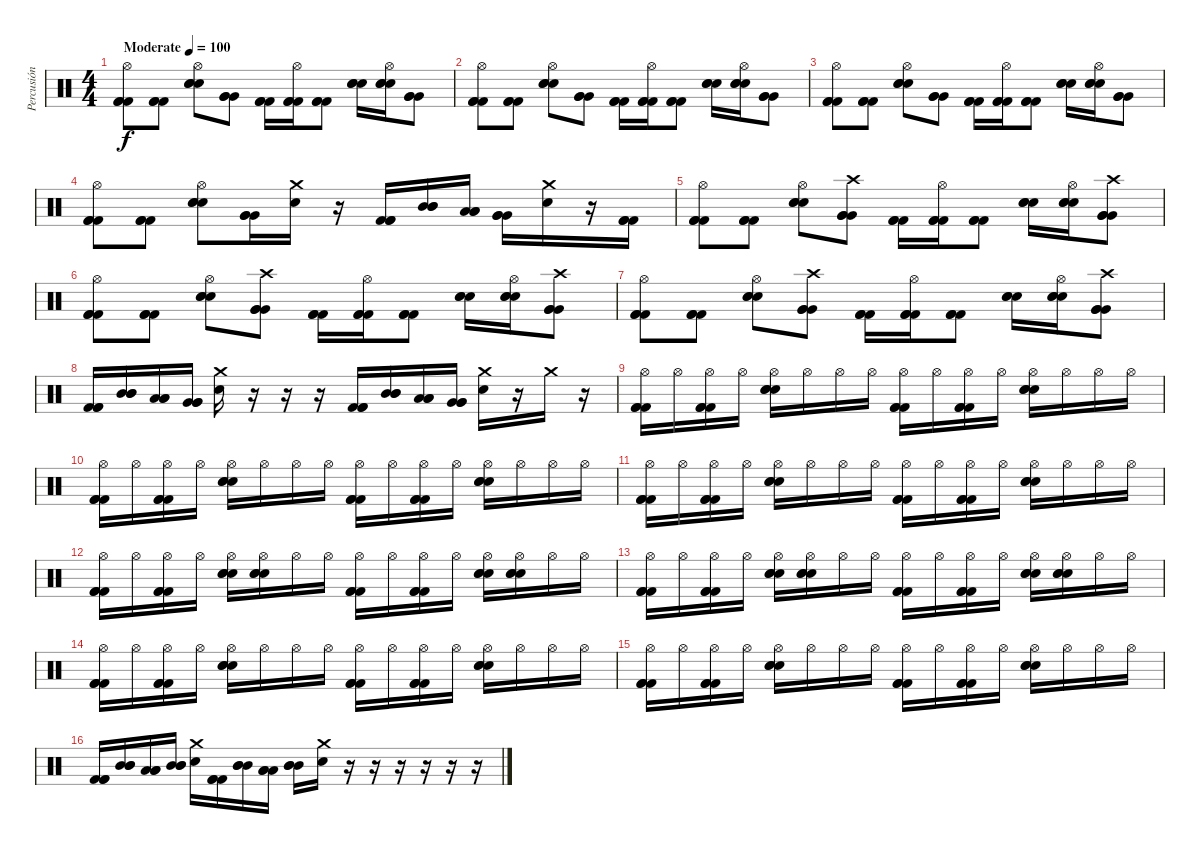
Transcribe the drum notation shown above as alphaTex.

\track ("Percusión" "Percusión") {instrument percussion}
\staff {score}
\articulation defaults
\ts (4 4)
\tempo (100 "Moderate")
\clef neutral
\ks c
("Hi-Hat (open)" "Kick (hit) 2" "Kick (hit) 2" "Kick (hit) 2").8{dy f} ("Kick (hit) 2" "Kick (hit) 2" "Kick (hit) 2").8 ("Hi-Hat (open)" "Snare (hit) 2" "Snare (hit) 2" "Snare (hit) 2").8 ("Very Low Tom (hit)" "Very Low Tom (hit)" "Very Low Tom (hit)").8 ("Kick (hit) 2" "Kick (hit) 2" "Kick (hit) 2").16 ("Hi-Hat (open)" "Kick (hit) 2" "Kick (hit) 2" "Kick (hit) 2").16 ("Kick (hit) 2" "Kick (hit) 2" "Kick (hit) 2").8 ("Snare (hit) 2" "Snare (hit) 2" "Snare (hit) 2").16 ("Hi-Hat (open)" "Snare (hit) 2" "Snare (hit) 2" "Snare (hit) 2").16 ("Very Low Tom (hit)" "Very Low Tom (hit)" "Very Low Tom (hit)").8 |
("Hi-Hat (open)" "Kick (hit) 2" "Kick (hit) 2" "Kick (hit) 2").8 ("Kick (hit) 2" "Kick (hit) 2" "Kick (hit) 2").8 ("Hi-Hat (open)" "Snare (hit) 2" "Snare (hit) 2" "Snare (hit) 2").8 ("Very Low Tom (hit)" "Very Low Tom (hit)" "Very Low Tom (hit)").8 ("Kick (hit) 2" "Kick (hit) 2" "Kick (hit) 2").16 ("Hi-Hat (open)" "Kick (hit) 2" "Kick (hit) 2" "Kick (hit) 2").16 ("Kick (hit) 2" "Kick (hit) 2" "Kick (hit) 2").8 ("Snare (hit) 2" "Snare (hit) 2" "Snare (hit) 2").16 ("Hi-Hat (open)" "Snare (hit) 2" "Snare (hit) 2" "Snare (hit) 2").16 ("Very Low Tom (hit)" "Very Low Tom (hit)" "Very Low Tom (hit)").8 |
("Hi-Hat (open)" "Kick (hit) 2" "Kick (hit) 2" "Kick (hit) 2").8 ("Kick (hit) 2" "Kick (hit) 2" "Kick (hit) 2").8 ("Hi-Hat (open)" "Snare (hit) 2" "Snare (hit) 2" "Snare (hit) 2").8 ("Very Low Tom (hit)" "Very Low Tom (hit)" "Very Low Tom (hit)").8 ("Kick (hit) 2" "Kick (hit) 2" "Kick (hit) 2").16 ("Hi-Hat (open)" "Kick (hit) 2" "Kick (hit) 2" "Kick (hit) 2").16 ("Kick (hit) 2" "Kick (hit) 2" "Kick (hit) 2").8 ("Snare (hit) 2" "Snare (hit) 2" "Snare (hit) 2").16 ("Hi-Hat (open)" "Snare (hit) 2" "Snare (hit) 2" "Snare (hit) 2").16 ("Very Low Tom (hit)" "Very Low Tom (hit)" "Very Low Tom (hit)").8 |
("Hi-Hat (open)" "Kick (hit) 2" "Kick (hit) 2" "Kick (hit) 2").8 ("Kick (hit) 2" "Kick (hit) 2" "Kick (hit) 2").8 ("Hi-Hat (open)" "Snare (hit) 2" "Snare (hit) 2" "Snare (hit) 2").8 ("Very Low Tom (hit)" "Very Low Tom (hit)" "Very Low Tom (hit)").16 ("Electric Snare (hit)" "Crash medium (hit)").16 r.16 ("Kick (hit) 2" "Kick (hit) 2" "Kick (hit) 2").16 ("Mid Tom (hit)" "Mid Tom (hit)" "Mid Tom (hit)").16 ("Low Tom (hit)" "Low Tom (hit)" "Low Tom (hit)").16 ("Very Low Tom (hit)" "Very Low Tom (hit)" "Very Low Tom (hit)").16 ("Electric Snare (hit)" "Crash medium (hit)").16 r.16 ("Kick (hit) 2" "Kick (hit) 2" "Kick (hit) 2").16 |
("Hi-Hat (open)" "Kick (hit) 2" "Kick (hit) 2" "Kick (hit) 2").8 ("Kick (hit) 2" "Kick (hit) 2" "Kick (hit) 2").8 ("Hi-Hat (open)" "Snare (hit) 2" "Snare (hit) 2" "Snare (hit) 2").8 ("Crash high (hit)" "Very Low Tom (hit)" "Very Low Tom (hit)" "Very Low Tom (hit)").8 ("Kick (hit) 2" "Kick (hit) 2" "Kick (hit) 2").16 ("Hi-Hat (open)" "Kick (hit) 2" "Kick (hit) 2" "Kick (hit) 2").16 ("Kick (hit) 2" "Kick (hit) 2" "Kick (hit) 2").8 ("Snare (hit) 2" "Snare (hit) 2" "Snare (hit) 2").16 ("Hi-Hat (open)" "Snare (hit) 2" "Snare (hit) 2" "Snare (hit) 2").16 ("Crash high (hit)" "Very Low Tom (hit)" "Very Low Tom (hit)" "Very Low Tom (hit)").8 |
("Hi-Hat (open)" "Kick (hit) 2" "Kick (hit) 2" "Kick (hit) 2").8 ("Kick (hit) 2" "Kick (hit) 2" "Kick (hit) 2").8 ("Hi-Hat (open)" "Snare (hit) 2" "Snare (hit) 2" "Snare (hit) 2").8 ("Crash high (hit)" "Very Low Tom (hit)" "Very Low Tom (hit)" "Very Low Tom (hit)").8 ("Kick (hit) 2" "Kick (hit) 2" "Kick (hit) 2").16 ("Hi-Hat (open)" "Kick (hit) 2" "Kick (hit) 2" "Kick (hit) 2").16 ("Kick (hit) 2" "Kick (hit) 2" "Kick (hit) 2").8 ("Snare (hit) 2" "Snare (hit) 2" "Snare (hit) 2").16 ("Hi-Hat (open)" "Snare (hit) 2" "Snare (hit) 2" "Snare (hit) 2").16 ("Crash high (hit)" "Very Low Tom (hit)" "Very Low Tom (hit)" "Very Low Tom (hit)").8 |
("Hi-Hat (open)" "Kick (hit) 2" "Kick (hit) 2" "Kick (hit) 2").8 ("Kick (hit) 2" "Kick (hit) 2" "Kick (hit) 2").8 ("Hi-Hat (open)" "Snare (hit) 2" "Snare (hit) 2" "Snare (hit) 2").8 ("Crash high (hit)" "Very Low Tom (hit)" "Very Low Tom (hit)" "Very Low Tom (hit)").8 ("Kick (hit) 2" "Kick (hit) 2" "Kick (hit) 2").16 ("Hi-Hat (open)" "Kick (hit) 2" "Kick (hit) 2" "Kick (hit) 2").16 ("Kick (hit) 2" "Kick (hit) 2" "Kick (hit) 2").8 ("Snare (hit) 2" "Snare (hit) 2" "Snare (hit) 2").16 ("Hi-Hat (open)" "Snare (hit) 2" "Snare (hit) 2" "Snare (hit) 2").16 ("Crash high (hit)" "Very Low Tom (hit)" "Very Low Tom (hit)" "Very Low Tom (hit)").8 |
("Kick (hit) 2" "Kick (hit) 2" "Kick (hit) 2").16 ("Mid Tom (hit)" "Mid Tom (hit)" "Mid Tom (hit)").16 ("Low Tom (hit)" "Low Tom (hit)" "Low Tom (hit)").16 ("Very Low Tom (hit)" "Very Low Tom (hit)" "Very Low Tom (hit)").16 ("Electric Snare (hit)" "Crash medium (hit)").16 r.16 r.16 r.16 ("Kick (hit) 2" "Kick (hit) 2" "Kick (hit) 2").16 ("Mid Tom (hit)" "Mid Tom (hit)" "Mid Tom (hit)").16 ("Low Tom (hit)" "Low Tom (hit)" "Low Tom (hit)").16 ("Very Low Tom (hit)" "Very Low Tom (hit)" "Very Low Tom (hit)").16 ("Electric Snare (hit)" "Crash medium (hit)").16 r.16 "Crash medium (hit)".16 r.16 |
("Hi-Hat (open)" "Kick (hit) 2" "Kick (hit) 2" "Kick (hit) 2").16 "Hi-Hat (open)".16 ("Hi-Hat (open)" "Kick (hit) 2" "Kick (hit) 2" "Kick (hit) 2").16 "Hi-Hat (open)".16 ("Hi-Hat (open)" "Snare (hit) 2" "Snare (hit) 2" "Snare (hit) 2").16 "Hi-Hat (open)".16 "Hi-Hat (open)".16 "Hi-Hat (open)".16 ("Hi-Hat (open)" "Kick (hit) 2" "Kick (hit) 2" "Kick (hit) 2").16 "Hi-Hat (open)".16 ("Hi-Hat (open)" "Kick (hit) 2" "Kick (hit) 2" "Kick (hit) 2").16 "Hi-Hat (open)".16 ("Hi-Hat (open)" "Snare (hit) 2" "Snare (hit) 2" "Snare (hit) 2").16 "Hi-Hat (open)".16 "Hi-Hat (open)".16 "Hi-Hat (open)".16 |
("Hi-Hat (open)" "Kick (hit) 2" "Kick (hit) 2" "Kick (hit) 2").16 "Hi-Hat (open)".16 ("Hi-Hat (open)" "Kick (hit) 2" "Kick (hit) 2" "Kick (hit) 2").16 "Hi-Hat (open)".16 ("Hi-Hat (open)" "Snare (hit) 2" "Snare (hit) 2" "Snare (hit) 2").16 "Hi-Hat (open)".16 "Hi-Hat (open)".16 "Hi-Hat (open)".16 ("Hi-Hat (open)" "Kick (hit) 2" "Kick (hit) 2" "Kick (hit) 2").16 "Hi-Hat (open)".16 ("Hi-Hat (open)" "Kick (hit) 2" "Kick (hit) 2" "Kick (hit) 2").16 "Hi-Hat (open)".16 ("Hi-Hat (open)" "Snare (hit) 2" "Snare (hit) 2" "Snare (hit) 2").16 "Hi-Hat (open)".16 "Hi-Hat (open)".16 "Hi-Hat (open)".16 |
("Hi-Hat (open)" "Kick (hit) 2" "Kick (hit) 2" "Kick (hit) 2").16 "Hi-Hat (open)".16 ("Hi-Hat (open)" "Kick (hit) 2" "Kick (hit) 2" "Kick (hit) 2").16 "Hi-Hat (open)".16 ("Hi-Hat (open)" "Snare (hit) 2" "Snare (hit) 2" "Snare (hit) 2").16 "Hi-Hat (open)".16 "Hi-Hat (open)".16 "Hi-Hat (open)".16 ("Hi-Hat (open)" "Kick (hit) 2" "Kick (hit) 2" "Kick (hit) 2").16 "Hi-Hat (open)".16 ("Hi-Hat (open)" "Kick (hit) 2" "Kick (hit) 2" "Kick (hit) 2").16 "Hi-Hat (open)".16 ("Hi-Hat (open)" "Snare (hit) 2" "Snare (hit) 2" "Snare (hit) 2").16 "Hi-Hat (open)".16 "Hi-Hat (open)".16 "Hi-Hat (open)".16 |
("Hi-Hat (open)" "Kick (hit) 2" "Kick (hit) 2" "Kick (hit) 2").16 "Hi-Hat (open)".16 ("Hi-Hat (open)" "Kick (hit) 2" "Kick (hit) 2" "Kick (hit) 2").16 "Hi-Hat (open)".16 ("Hi-Hat (open)" "Snare (hit) 2" "Snare (hit) 2" "Snare (hit) 2").16 ("Hi-Hat (open)" "Snare (hit) 2" "Snare (hit) 2" "Snare (hit) 2").16 "Hi-Hat (open)".16 "Hi-Hat (open)".16 ("Hi-Hat (open)" "Kick (hit) 2" "Kick (hit) 2" "Kick (hit) 2").16 "Hi-Hat (open)".16 ("Hi-Hat (open)" "Kick (hit) 2" "Kick (hit) 2" "Kick (hit) 2").16 "Hi-Hat (open)".16 ("Hi-Hat (open)" "Snare (hit) 2" "Snare (hit) 2" "Snare (hit) 2").16 ("Hi-Hat (open)" "Snare (hit) 2" "Snare (hit) 2" "Snare (hit) 2").16 "Hi-Hat (open)".16 "Hi-Hat (open)".16 |
("Hi-Hat (open)" "Kick (hit) 2" "Kick (hit) 2" "Kick (hit) 2").16 "Hi-Hat (open)".16 ("Hi-Hat (open)" "Kick (hit) 2" "Kick (hit) 2" "Kick (hit) 2").16 "Hi-Hat (open)".16 ("Hi-Hat (open)" "Snare (hit) 2" "Snare (hit) 2" "Snare (hit) 2").16 ("Hi-Hat (open)" "Snare (hit) 2" "Snare (hit) 2" "Snare (hit) 2").16 "Hi-Hat (open)".16 "Hi-Hat (open)".16 ("Hi-Hat (open)" "Kick (hit) 2" "Kick (hit) 2" "Kick (hit) 2").16 "Hi-Hat (open)".16 ("Hi-Hat (open)" "Kick (hit) 2" "Kick (hit) 2" "Kick (hit) 2").16 "Hi-Hat (open)".16 ("Hi-Hat (open)" "Snare (hit) 2" "Snare (hit) 2" "Snare (hit) 2").16 ("Hi-Hat (open)" "Snare (hit) 2" "Snare (hit) 2" "Snare (hit) 2").16 "Hi-Hat (open)".16 "Hi-Hat (open)".16 |
("Hi-Hat (open)" "Kick (hit) 2" "Kick (hit) 2" "Kick (hit) 2").16 "Hi-Hat (open)".16 ("Hi-Hat (open)" "Kick (hit) 2" "Kick (hit) 2" "Kick (hit) 2").16 "Hi-Hat (open)".16 ("Hi-Hat (open)" "Snare (hit) 2" "Snare (hit) 2" "Snare (hit) 2").16 "Hi-Hat (open)".16 "Hi-Hat (open)".16 "Hi-Hat (open)".16 ("Hi-Hat (open)" "Kick (hit) 2" "Kick (hit) 2" "Kick (hit) 2").16 "Hi-Hat (open)".16 ("Hi-Hat (open)" "Kick (hit) 2" "Kick (hit) 2" "Kick (hit) 2").16 "Hi-Hat (open)".16 ("Hi-Hat (open)" "Snare (hit) 2" "Snare (hit) 2" "Snare (hit) 2").16 "Hi-Hat (open)".16 "Hi-Hat (open)".16 "Hi-Hat (open)".16 |
("Hi-Hat (open)" "Kick (hit) 2" "Kick (hit) 2" "Kick (hit) 2").16 "Hi-Hat (open)".16 ("Hi-Hat (open)" "Kick (hit) 2" "Kick (hit) 2" "Kick (hit) 2").16 "Hi-Hat (open)".16 ("Hi-Hat (open)" "Snare (hit) 2" "Snare (hit) 2" "Snare (hit) 2").16 "Hi-Hat (open)".16 "Hi-Hat (open)".16 "Hi-Hat (open)".16 ("Hi-Hat (open)" "Kick (hit) 2" "Kick (hit) 2" "Kick (hit) 2").16 "Hi-Hat (open)".16 ("Hi-Hat (open)" "Kick (hit) 2" "Kick (hit) 2" "Kick (hit) 2").16 "Hi-Hat (open)".16 ("Hi-Hat (open)" "Snare (hit) 2" "Snare (hit) 2" "Snare (hit) 2").16 "Hi-Hat (open)".16 "Hi-Hat (open)".16 "Hi-Hat (open)".16 |
("Kick (hit) 2" "Kick (hit) 2" "Kick (hit) 2").16 ("Mid Tom (hit)" "Mid Tom (hit)" "Mid Tom (hit)").16 ("Low Tom (hit)" "Low Tom (hit)" "Low Tom (hit)").16 ("Mid Tom (hit)" "Mid Tom (hit)" "Mid Tom (hit)").16 ("Electric Snare (hit)" "Crash medium (hit)").16 ("Kick (hit) 2" "Kick (hit) 2" "Kick (hit) 2").16 ("Mid Tom (hit)" "Mid Tom (hit)" "Mid Tom (hit)").16 ("Low Tom (hit)" "Low Tom (hit)" "Low Tom (hit)").16 ("Mid Tom (hit)" "Mid Tom (hit)" "Mid Tom (hit)").16 ("Electric Snare (hit)" "Crash medium (hit)").16 r.16 r.16 r.16 r.16 r.16 r.16
